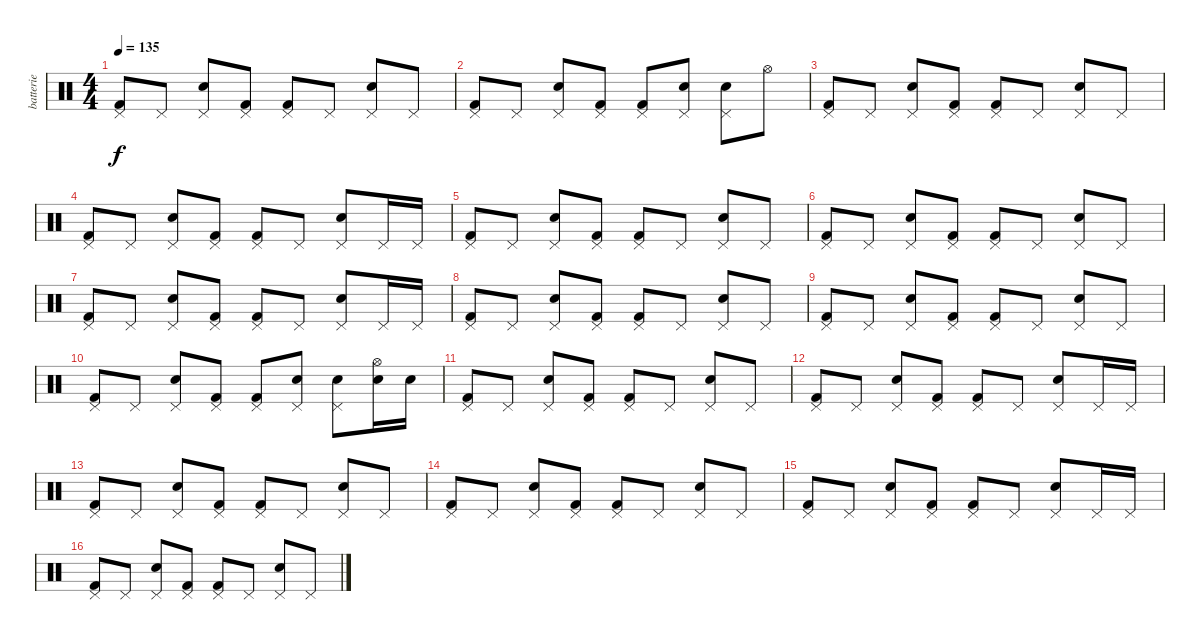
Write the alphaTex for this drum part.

\track ("batterie" "batterie") {instrument percussion}
\staff {score}
\articulation defaults
\ts (4 4)
\tempo 135
\clef neutral
\ks c
("Pedal Hi-Hat (hit)" "Kick (hit) 2").8{dy f} "Pedal Hi-Hat (hit)".8 ("Pedal Hi-Hat (hit)" "Snare (hit) 2").8 ("Pedal Hi-Hat (hit)" "Kick (hit) 2").8 ("Pedal Hi-Hat (hit)" "Kick (hit) 2").8 "Pedal Hi-Hat (hit)".8 ("Pedal Hi-Hat (hit)" "Snare (hit) 2").8 "Pedal Hi-Hat (hit)".8 |
("Pedal Hi-Hat (hit)" "Kick (hit) 2").8 "Pedal Hi-Hat (hit)".8 ("Pedal Hi-Hat (hit)" "Snare (hit) 2").8 ("Pedal Hi-Hat (hit)" "Kick (hit) 2").8 ("Pedal Hi-Hat (hit)" "Kick (hit) 2").8 ("Pedal Hi-Hat (hit)" "Snare (hit) 2").8 ("Pedal Hi-Hat (hit)" "Snare (hit) 2").8 "Hi-Hat (open)".8 |
("Pedal Hi-Hat (hit)" "Kick (hit) 2").8 "Pedal Hi-Hat (hit)".8 ("Pedal Hi-Hat (hit)" "Snare (hit) 2").8 ("Pedal Hi-Hat (hit)" "Kick (hit) 2").8 ("Pedal Hi-Hat (hit)" "Kick (hit) 2").8 "Pedal Hi-Hat (hit)".8 ("Pedal Hi-Hat (hit)" "Snare (hit) 2").8 "Pedal Hi-Hat (hit)".8 |
("Pedal Hi-Hat (hit)" "Kick (hit) 2").8 "Pedal Hi-Hat (hit)".8 ("Pedal Hi-Hat (hit)" "Snare (hit) 2").8 ("Pedal Hi-Hat (hit)" "Kick (hit) 2").8 ("Pedal Hi-Hat (hit)" "Kick (hit) 2").8 "Pedal Hi-Hat (hit)".8 ("Pedal Hi-Hat (hit)" "Snare (hit) 2").8 "Pedal Hi-Hat (hit)".16 "Pedal Hi-Hat (hit)".16 |
("Pedal Hi-Hat (hit)" "Kick (hit) 2").8 "Pedal Hi-Hat (hit)".8 ("Pedal Hi-Hat (hit)" "Snare (hit) 2").8 ("Pedal Hi-Hat (hit)" "Kick (hit) 2").8 ("Pedal Hi-Hat (hit)" "Kick (hit) 2").8 "Pedal Hi-Hat (hit)".8 ("Pedal Hi-Hat (hit)" "Snare (hit) 2").8 "Pedal Hi-Hat (hit)".8 |
("Pedal Hi-Hat (hit)" "Kick (hit) 2").8 "Pedal Hi-Hat (hit)".8 ("Pedal Hi-Hat (hit)" "Snare (hit) 2").8 ("Pedal Hi-Hat (hit)" "Kick (hit) 2").8 ("Pedal Hi-Hat (hit)" "Kick (hit) 2").8 "Pedal Hi-Hat (hit)".8 ("Pedal Hi-Hat (hit)" "Snare (hit) 2").8 "Pedal Hi-Hat (hit)".8 |
("Pedal Hi-Hat (hit)" "Kick (hit) 2").8 "Pedal Hi-Hat (hit)".8 ("Pedal Hi-Hat (hit)" "Snare (hit) 2").8 ("Pedal Hi-Hat (hit)" "Kick (hit) 2").8 ("Pedal Hi-Hat (hit)" "Kick (hit) 2").8 "Pedal Hi-Hat (hit)".8 ("Pedal Hi-Hat (hit)" "Snare (hit) 2").8 "Pedal Hi-Hat (hit)".16 "Pedal Hi-Hat (hit)".16 |
("Pedal Hi-Hat (hit)" "Kick (hit) 2").8 "Pedal Hi-Hat (hit)".8 ("Pedal Hi-Hat (hit)" "Snare (hit) 2").8 ("Pedal Hi-Hat (hit)" "Kick (hit) 2").8 ("Pedal Hi-Hat (hit)" "Kick (hit) 2").8 "Pedal Hi-Hat (hit)".8 ("Pedal Hi-Hat (hit)" "Snare (hit) 2").8 "Pedal Hi-Hat (hit)".8 |
("Pedal Hi-Hat (hit)" "Kick (hit) 2").8 "Pedal Hi-Hat (hit)".8 ("Pedal Hi-Hat (hit)" "Snare (hit) 2").8 ("Pedal Hi-Hat (hit)" "Kick (hit) 2").8 ("Pedal Hi-Hat (hit)" "Kick (hit) 2").8 "Pedal Hi-Hat (hit)".8 ("Pedal Hi-Hat (hit)" "Snare (hit) 2").8 "Pedal Hi-Hat (hit)".8 |
("Pedal Hi-Hat (hit)" "Kick (hit) 2").8 "Pedal Hi-Hat (hit)".8 ("Pedal Hi-Hat (hit)" "Snare (hit) 2").8 ("Pedal Hi-Hat (hit)" "Kick (hit) 2").8 ("Pedal Hi-Hat (hit)" "Kick (hit) 2").8 ("Pedal Hi-Hat (hit)" "Snare (hit) 2").8 ("Pedal Hi-Hat (hit)" "Snare (hit) 2").8 ("Hi-Hat (open)" "Snare (hit) 2").16 "Snare (hit) 2".16 |
("Pedal Hi-Hat (hit)" "Kick (hit) 2").8 "Pedal Hi-Hat (hit)".8 ("Pedal Hi-Hat (hit)" "Snare (hit) 2").8 ("Pedal Hi-Hat (hit)" "Kick (hit) 2").8 ("Pedal Hi-Hat (hit)" "Kick (hit) 2").8 "Pedal Hi-Hat (hit)".8 ("Pedal Hi-Hat (hit)" "Snare (hit) 2").8 "Pedal Hi-Hat (hit)".8 |
("Pedal Hi-Hat (hit)" "Kick (hit) 2").8 "Pedal Hi-Hat (hit)".8 ("Pedal Hi-Hat (hit)" "Snare (hit) 2").8 ("Pedal Hi-Hat (hit)" "Kick (hit) 2").8 ("Pedal Hi-Hat (hit)" "Kick (hit) 2").8 "Pedal Hi-Hat (hit)".8 ("Pedal Hi-Hat (hit)" "Snare (hit) 2").8 "Pedal Hi-Hat (hit)".16 "Pedal Hi-Hat (hit)".16 |
("Pedal Hi-Hat (hit)" "Kick (hit) 2").8 "Pedal Hi-Hat (hit)".8 ("Pedal Hi-Hat (hit)" "Snare (hit) 2").8 ("Pedal Hi-Hat (hit)" "Kick (hit) 2").8 ("Pedal Hi-Hat (hit)" "Kick (hit) 2").8 "Pedal Hi-Hat (hit)".8 ("Pedal Hi-Hat (hit)" "Snare (hit) 2").8 "Pedal Hi-Hat (hit)".8 |
("Pedal Hi-Hat (hit)" "Kick (hit) 2").8 "Pedal Hi-Hat (hit)".8 ("Pedal Hi-Hat (hit)" "Snare (hit) 2").8 ("Pedal Hi-Hat (hit)" "Kick (hit) 2").8 ("Pedal Hi-Hat (hit)" "Kick (hit) 2").8 "Pedal Hi-Hat (hit)".8 ("Pedal Hi-Hat (hit)" "Snare (hit) 2").8 "Pedal Hi-Hat (hit)".8 |
("Pedal Hi-Hat (hit)" "Kick (hit) 2").8 "Pedal Hi-Hat (hit)".8 ("Pedal Hi-Hat (hit)" "Snare (hit) 2").8 ("Pedal Hi-Hat (hit)" "Kick (hit) 2").8 ("Pedal Hi-Hat (hit)" "Kick (hit) 2").8 "Pedal Hi-Hat (hit)".8 ("Pedal Hi-Hat (hit)" "Snare (hit) 2").8 "Pedal Hi-Hat (hit)".16 "Pedal Hi-Hat (hit)".16 |
("Pedal Hi-Hat (hit)" "Kick (hit) 2").8 "Pedal Hi-Hat (hit)".8 ("Pedal Hi-Hat (hit)" "Snare (hit) 2").8 ("Pedal Hi-Hat (hit)" "Kick (hit) 2").8 ("Pedal Hi-Hat (hit)" "Kick (hit) 2").8 "Pedal Hi-Hat (hit)".8 ("Pedal Hi-Hat (hit)" "Snare (hit) 2").8 "Pedal Hi-Hat (hit)".8
